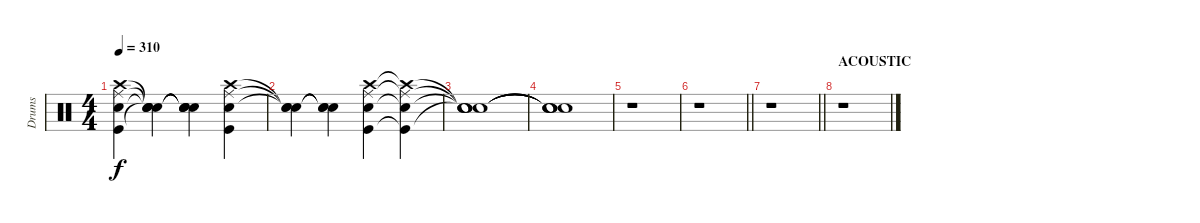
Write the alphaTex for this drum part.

\track ("Drums" "Drums") {instrument percussion}
\staff {score}
\articulation defaults
\ts (4 4)
\tempo 310
\clef neutral
\ks c
("Crash high (hit)" "Ride (middle)" "Snare (hit) 2" "Kick (hit)").4{dy f} ("Snare (hit)"{t} "Snare (hit)"{t} "Snare (hit)"{t} "Snare (hit)"{t}).4 ("Snare (hit)"{t} "Snare (hit)"{t} "Snare (hit)"{t} "Snare (hit)"{t}).4 ("Crash high (hit)" "Ride (middle)" "Snare (hit) 2" "Kick (hit)").4 |
("Snare (hit)"{t} "Snare (hit)"{t} "Snare (hit)"{t}).4 ("Snare (hit)"{t} "Snare (hit)"{t} "Snare (hit)"{t}).4 ("Crash high (hit)" "Ride (middle)" "Snare (hit) 2" "Kick (hit)").4 ("Crash high (hit)"{t} "Ride (middle)"{t} "Snare (hit) 2"{t} "Kick (hit)"{t}).4 |
("Snare (hit)"{t} "Snare (hit)"{t} "Snare (hit)"{t} "Snare (hit)"{t}).1 |
("Snare (hit)"{t} "Snare (hit)"{t} "Snare (hit)"{t} "Snare (hit)"{t}).1 |
r.1 |
\barLineRight lightlight
r.1 |
\barLineRight lightlight
r.1 |
\section ("" "ACOUSTIC")
r.1
